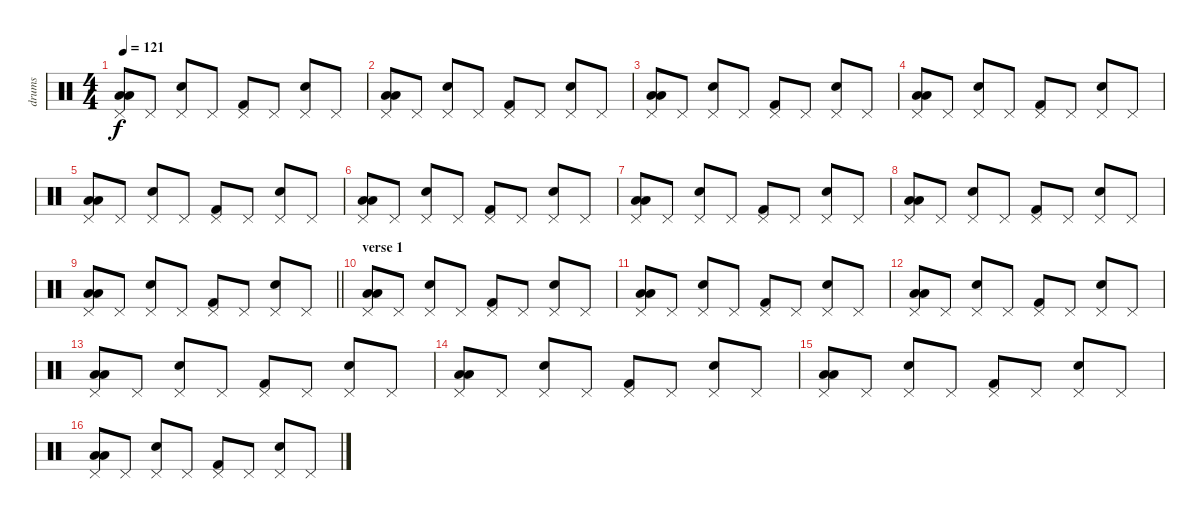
\track ("drums" "drums") {instrument percussion}
\staff {score}
\articulation defaults
\ts (4 4)
\tempo 121
\clef neutral
\ks c
("Low Floor Tom (hit)" "Low Floor Tom (hit)" "Pedal Hi-Hat (hit)").8{dy f} "Pedal Hi-Hat (hit)".8 ("Hand Clap (hit)" "Pedal Hi-Hat (hit)").8 "Pedal Hi-Hat (hit)".8 ("Kick (hit) 2" "Pedal Hi-Hat (hit)").8 "Pedal Hi-Hat (hit)".8 ("Snare (hit) 2" "Pedal Hi-Hat (hit)").8 "Pedal Hi-Hat (hit)".8 |
("Low Floor Tom (hit)" "Low Floor Tom (hit)" "Pedal Hi-Hat (hit)").8 "Pedal Hi-Hat (hit)".8 ("Hand Clap (hit)" "Pedal Hi-Hat (hit)").8 "Pedal Hi-Hat (hit)".8 ("Kick (hit) 2" "Pedal Hi-Hat (hit)").8 "Pedal Hi-Hat (hit)".8 ("Snare (hit) 2" "Pedal Hi-Hat (hit)").8 "Pedal Hi-Hat (hit)".8 |
("Low Floor Tom (hit)" "Low Floor Tom (hit)" "Pedal Hi-Hat (hit)").8 "Pedal Hi-Hat (hit)".8 ("Hand Clap (hit)" "Pedal Hi-Hat (hit)").8 "Pedal Hi-Hat (hit)".8 ("Kick (hit) 2" "Pedal Hi-Hat (hit)").8 "Pedal Hi-Hat (hit)".8 ("Snare (hit) 2" "Pedal Hi-Hat (hit)").8 "Pedal Hi-Hat (hit)".8 |
("Low Floor Tom (hit)" "Low Floor Tom (hit)" "Pedal Hi-Hat (hit)").8 "Pedal Hi-Hat (hit)".8 ("Hand Clap (hit)" "Pedal Hi-Hat (hit)").8 "Pedal Hi-Hat (hit)".8 ("Kick (hit) 2" "Pedal Hi-Hat (hit)").8 "Pedal Hi-Hat (hit)".8 ("Snare (hit) 2" "Pedal Hi-Hat (hit)").8 "Pedal Hi-Hat (hit)".8 |
("Low Floor Tom (hit)" "Low Floor Tom (hit)" "Pedal Hi-Hat (hit)").8 "Pedal Hi-Hat (hit)".8 ("Hand Clap (hit)" "Pedal Hi-Hat (hit)").8 "Pedal Hi-Hat (hit)".8 ("Kick (hit) 2" "Pedal Hi-Hat (hit)").8 "Pedal Hi-Hat (hit)".8 ("Snare (hit) 2" "Pedal Hi-Hat (hit)").8 "Pedal Hi-Hat (hit)".8 |
("Low Floor Tom (hit)" "Low Floor Tom (hit)" "Pedal Hi-Hat (hit)").8 "Pedal Hi-Hat (hit)".8 ("Hand Clap (hit)" "Pedal Hi-Hat (hit)").8 "Pedal Hi-Hat (hit)".8 ("Kick (hit) 2" "Pedal Hi-Hat (hit)").8 "Pedal Hi-Hat (hit)".8 ("Snare (hit) 2" "Pedal Hi-Hat (hit)").8 "Pedal Hi-Hat (hit)".8 |
("Low Floor Tom (hit)" "Low Floor Tom (hit)" "Pedal Hi-Hat (hit)").8 "Pedal Hi-Hat (hit)".8 ("Hand Clap (hit)" "Pedal Hi-Hat (hit)").8 "Pedal Hi-Hat (hit)".8 ("Kick (hit) 2" "Pedal Hi-Hat (hit)").8 "Pedal Hi-Hat (hit)".8 ("Snare (hit) 2" "Pedal Hi-Hat (hit)").8 "Pedal Hi-Hat (hit)".8 |
("Low Floor Tom (hit)" "Low Floor Tom (hit)" "Pedal Hi-Hat (hit)").8 "Pedal Hi-Hat (hit)".8 ("Hand Clap (hit)" "Pedal Hi-Hat (hit)").8 "Pedal Hi-Hat (hit)".8 ("Kick (hit) 2" "Pedal Hi-Hat (hit)").8 "Pedal Hi-Hat (hit)".8 ("Snare (hit) 2" "Pedal Hi-Hat (hit)").8 "Pedal Hi-Hat (hit)".8 |
\barLineRight lightlight
("Low Floor Tom (hit)" "Low Floor Tom (hit)" "Pedal Hi-Hat (hit)").8 "Pedal Hi-Hat (hit)".8 ("Hand Clap (hit)" "Pedal Hi-Hat (hit)").8 "Pedal Hi-Hat (hit)".8 ("Kick (hit) 2" "Pedal Hi-Hat (hit)").8 "Pedal Hi-Hat (hit)".8 ("Snare (hit) 2" "Pedal Hi-Hat (hit)").8 "Pedal Hi-Hat (hit)".8 |
\section ("" "verse 1")
("Low Floor Tom (hit)" "Low Floor Tom (hit)" "Pedal Hi-Hat (hit)").8 "Pedal Hi-Hat (hit)".8 ("Hand Clap (hit)" "Pedal Hi-Hat (hit)").8 "Pedal Hi-Hat (hit)".8 ("Kick (hit) 2" "Pedal Hi-Hat (hit)").8 "Pedal Hi-Hat (hit)".8 ("Snare (hit) 2" "Pedal Hi-Hat (hit)").8 "Pedal Hi-Hat (hit)".8 |
("Low Floor Tom (hit)" "Low Floor Tom (hit)" "Pedal Hi-Hat (hit)").8 "Pedal Hi-Hat (hit)".8 ("Hand Clap (hit)" "Pedal Hi-Hat (hit)").8 "Pedal Hi-Hat (hit)".8 ("Kick (hit) 2" "Pedal Hi-Hat (hit)").8 "Pedal Hi-Hat (hit)".8 ("Snare (hit) 2" "Pedal Hi-Hat (hit)").8 "Pedal Hi-Hat (hit)".8 |
("Low Floor Tom (hit)" "Low Floor Tom (hit)" "Pedal Hi-Hat (hit)").8 "Pedal Hi-Hat (hit)".8 ("Hand Clap (hit)" "Pedal Hi-Hat (hit)").8 "Pedal Hi-Hat (hit)".8 ("Kick (hit) 2" "Pedal Hi-Hat (hit)").8 "Pedal Hi-Hat (hit)".8 ("Snare (hit) 2" "Pedal Hi-Hat (hit)").8 "Pedal Hi-Hat (hit)".8 |
("Low Floor Tom (hit)" "Low Floor Tom (hit)" "Pedal Hi-Hat (hit)").8 "Pedal Hi-Hat (hit)".8 ("Hand Clap (hit)" "Pedal Hi-Hat (hit)").8 "Pedal Hi-Hat (hit)".8 ("Kick (hit) 2" "Pedal Hi-Hat (hit)").8 "Pedal Hi-Hat (hit)".8 ("Snare (hit) 2" "Pedal Hi-Hat (hit)").8 "Pedal Hi-Hat (hit)".8 |
("Low Floor Tom (hit)" "Low Floor Tom (hit)" "Pedal Hi-Hat (hit)").8 "Pedal Hi-Hat (hit)".8 ("Hand Clap (hit)" "Pedal Hi-Hat (hit)").8 "Pedal Hi-Hat (hit)".8 ("Kick (hit) 2" "Pedal Hi-Hat (hit)").8 "Pedal Hi-Hat (hit)".8 ("Snare (hit) 2" "Pedal Hi-Hat (hit)").8 "Pedal Hi-Hat (hit)".8 |
("Low Floor Tom (hit)" "Low Floor Tom (hit)" "Pedal Hi-Hat (hit)").8 "Pedal Hi-Hat (hit)".8 ("Hand Clap (hit)" "Pedal Hi-Hat (hit)").8 "Pedal Hi-Hat (hit)".8 ("Kick (hit) 2" "Pedal Hi-Hat (hit)").8 "Pedal Hi-Hat (hit)".8 ("Snare (hit) 2" "Pedal Hi-Hat (hit)").8 "Pedal Hi-Hat (hit)".8 |
("Low Floor Tom (hit)" "Low Floor Tom (hit)" "Pedal Hi-Hat (hit)").8 "Pedal Hi-Hat (hit)".8 ("Hand Clap (hit)" "Pedal Hi-Hat (hit)").8 "Pedal Hi-Hat (hit)".8 ("Kick (hit) 2" "Pedal Hi-Hat (hit)").8 "Pedal Hi-Hat (hit)".8 ("Snare (hit) 2" "Pedal Hi-Hat (hit)").8 "Pedal Hi-Hat (hit)".8
